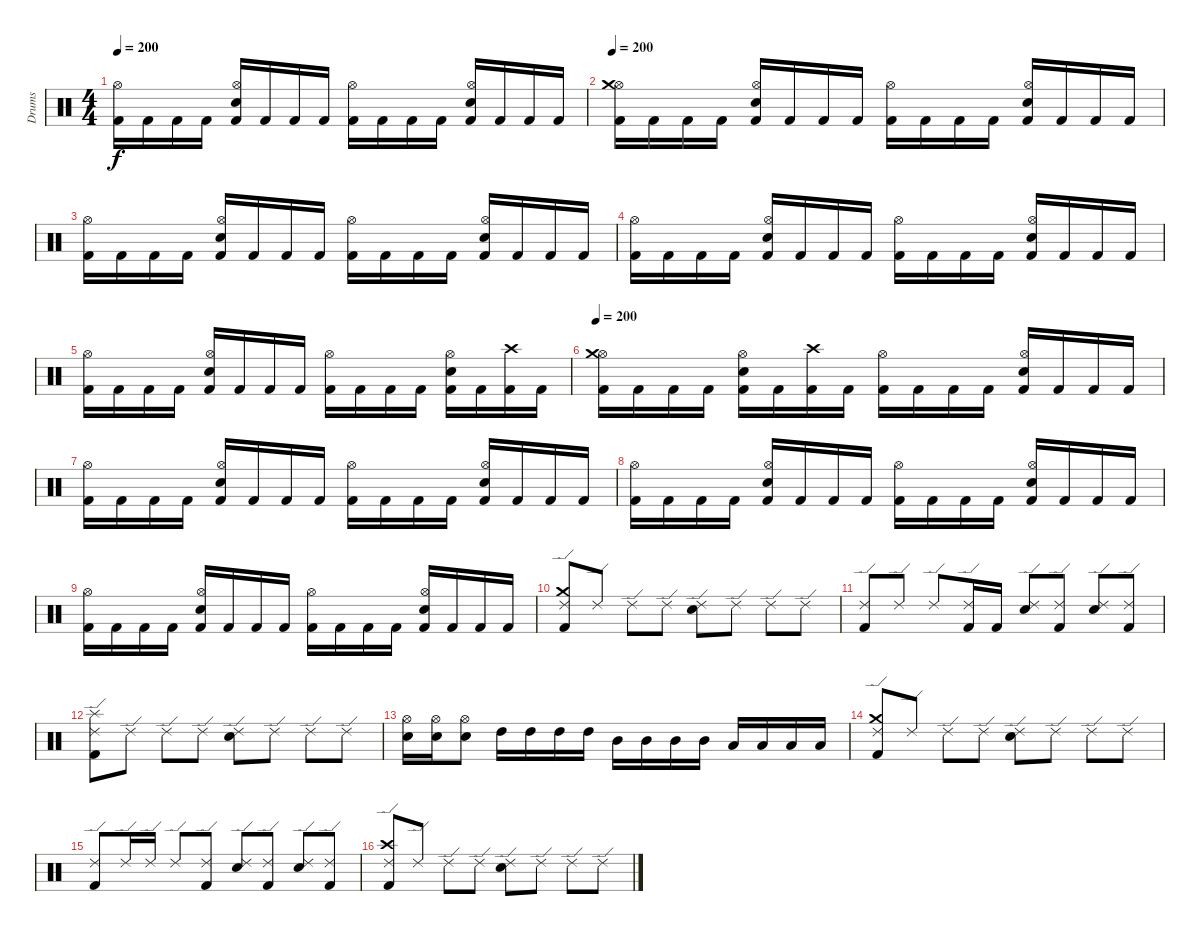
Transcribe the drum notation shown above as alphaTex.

\track ("Drums" "Drums") {instrument percussion}
\staff {score}
\articulation defaults
\ts (4 4)
\tempo 200
\clef neutral
\ks c
("Kick (hit) 2" "Hi-Hat (open)").16{dy f} "Kick (hit) 2".16 "Kick (hit) 2".16 "Kick (hit) 2".16 ("Kick (hit) 2" "Snare (hit) 2" "Hi-Hat (open)").16 "Kick (hit) 2".16 "Kick (hit) 2".16 "Kick (hit) 2".16 ("Kick (hit) 2" "Hi-Hat (open)").16 "Kick (hit) 2".16 "Kick (hit) 2".16 "Kick (hit) 2".16 ("Kick (hit) 2" "Snare (hit) 2" "Hi-Hat (open)").16 "Kick (hit) 2".16 "Kick (hit) 2".16 "Kick (hit) 2".16 |
\tempo 200
("Kick (hit) 2" "Hi-Hat (open)" "Crash medium (hit)").16 "Kick (hit) 2".16 "Kick (hit) 2".16 "Kick (hit) 2".16 ("Kick (hit) 2" "Snare (hit) 2" "Hi-Hat (open)").16 "Kick (hit) 2".16 "Kick (hit) 2".16 "Kick (hit) 2".16 ("Kick (hit) 2" "Hi-Hat (open)").16 "Kick (hit) 2".16 "Kick (hit) 2".16 "Kick (hit) 2".16 ("Kick (hit) 2" "Snare (hit) 2" "Hi-Hat (open)").16 "Kick (hit) 2".16 "Kick (hit) 2".16 "Kick (hit) 2".16 |
("Kick (hit) 2" "Hi-Hat (open)").16 "Kick (hit) 2".16 "Kick (hit) 2".16 "Kick (hit) 2".16 ("Kick (hit) 2" "Snare (hit) 2" "Hi-Hat (open)").16 "Kick (hit) 2".16 "Kick (hit) 2".16 "Kick (hit) 2".16 ("Kick (hit) 2" "Hi-Hat (open)").16 "Kick (hit) 2".16 "Kick (hit) 2".16 "Kick (hit) 2".16 ("Kick (hit) 2" "Snare (hit) 2" "Hi-Hat (open)").16 "Kick (hit) 2".16 "Kick (hit) 2".16 "Kick (hit) 2".16 |
("Kick (hit) 2" "Hi-Hat (open)").16 "Kick (hit) 2".16 "Kick (hit) 2".16 "Kick (hit) 2".16 ("Kick (hit) 2" "Snare (hit) 2" "Hi-Hat (open)").16 "Kick (hit) 2".16 "Kick (hit) 2".16 "Kick (hit) 2".16 ("Kick (hit) 2" "Hi-Hat (open)").16 "Kick (hit) 2".16 "Kick (hit) 2".16 "Kick (hit) 2".16 ("Kick (hit) 2" "Snare (hit) 2" "Hi-Hat (open)").16 "Kick (hit) 2".16 "Kick (hit) 2".16 "Kick (hit) 2".16 |
("Kick (hit) 2" "Hi-Hat (open)").16 "Kick (hit) 2".16 "Kick (hit) 2".16 "Kick (hit) 2".16 ("Kick (hit) 2" "Snare (hit) 2" "Hi-Hat (open)").16 "Kick (hit) 2".16 "Kick (hit) 2".16 "Kick (hit) 2".16 ("Kick (hit) 2" "Hi-Hat (open)").16 "Kick (hit) 2".16 "Kick (hit) 2".16 "Kick (hit) 2".16 ("Kick (hit) 2" "Snare (hit) 2" "Hi-Hat (open)").16 "Kick (hit) 2".16 ("Kick (hit) 2" "Crash high (hit)").16 "Kick (hit) 2".16 |
\tempo 200
("Kick (hit) 2" "Hi-Hat (open)" "Crash medium (hit)").16 "Kick (hit) 2".16 "Kick (hit) 2".16 "Kick (hit) 2".16 ("Kick (hit) 2" "Snare (hit) 2" "Hi-Hat (open)").16 "Kick (hit) 2".16 ("Kick (hit) 2" "Crash high (hit)").16 "Kick (hit) 2".16 ("Kick (hit) 2" "Hi-Hat (open)").16 "Kick (hit) 2".16 "Kick (hit) 2".16 "Kick (hit) 2".16 ("Kick (hit) 2" "Snare (hit) 2" "Hi-Hat (open)").16 "Kick (hit) 2".16 "Kick (hit) 2".16 "Kick (hit) 2".16 |
("Kick (hit) 2" "Hi-Hat (open)").16 "Kick (hit) 2".16 "Kick (hit) 2".16 "Kick (hit) 2".16 ("Kick (hit) 2" "Snare (hit) 2" "Hi-Hat (open)").16 "Kick (hit) 2".16 "Kick (hit) 2".16 "Kick (hit) 2".16 ("Kick (hit) 2" "Hi-Hat (open)").16 "Kick (hit) 2".16 "Kick (hit) 2".16 "Kick (hit) 2".16 ("Kick (hit) 2" "Snare (hit) 2" "Hi-Hat (open)").16 "Kick (hit) 2".16 "Kick (hit) 2".16 "Kick (hit) 2".16 |
("Kick (hit) 2" "Hi-Hat (open)").16 "Kick (hit) 2".16 "Kick (hit) 2".16 "Kick (hit) 2".16 ("Kick (hit) 2" "Snare (hit) 2" "Hi-Hat (open)").16 "Kick (hit) 2".16 "Kick (hit) 2".16 "Kick (hit) 2".16 ("Kick (hit) 2" "Hi-Hat (open)").16 "Kick (hit) 2".16 "Kick (hit) 2".16 "Kick (hit) 2".16 ("Kick (hit) 2" "Snare (hit) 2" "Hi-Hat (open)").16 "Kick (hit) 2".16 "Kick (hit) 2".16 "Kick (hit) 2".16 |
("Kick (hit) 2" "Hi-Hat (open)").16 "Kick (hit) 2".16 "Kick (hit) 2".16 "Kick (hit) 2".16 ("Kick (hit) 2" "Snare (hit) 2" "Hi-Hat (open)").16 "Kick (hit) 2".16 "Kick (hit) 2".16 "Kick (hit) 2".16 ("Kick (hit) 2" "Hi-Hat (open)").16 "Kick (hit) 2".16 "Kick (hit) 2".16 "Kick (hit) 2".16 ("Kick (hit) 2" "Snare (hit) 2" "Hi-Hat (open)").16 "Kick (hit) 2".16 "Kick (hit) 2".16 "Kick (hit) 2".16 |
("Kick (hit) 2" "Ride (edge) 2" "Crash medium (hit)").8 "Ride (edge) 2".8 "Ride (edge) 2".8 "Ride (edge) 2".8 ("Snare (hit) 2" "Ride (edge) 2").8 "Ride (edge) 2".8 "Ride (edge) 2".8 "Ride (edge) 2".8 |
("Kick (hit) 2" "Ride (edge) 2").8 "Ride (edge) 2".8 "Ride (edge) 2".8 ("Kick (hit) 2" "Ride (edge) 2").16 "Kick (hit) 2".16 ("Snare (hit) 2" "Ride (edge) 2").8 ("Kick (hit) 2" "Ride (edge) 2").8 ("Snare (hit) 2" "Ride (edge) 2").8 ("Kick (hit) 2" "Ride (edge) 2").8 |
("Kick (hit) 2" "Ride (edge) 2" "Splash (hit)").8 "Ride (edge) 2".8 "Ride (edge) 2".8 "Ride (edge) 2".8 ("Snare (hit) 2" "Ride (edge) 2").8 "Ride (edge) 2".8 "Ride (edge) 2".8 "Ride (edge) 2".8 |
("Snare (hit) 2" "Hi-Hat (open)").16 ("Snare (hit) 2" "Hi-Hat (open)").16 ("Snare (hit) 2" "Hi-Hat (open)").8 "High Tom (hit)".16 "High Tom (hit)".16 "High Tom (hit)".16 "High Tom (hit)".16 "Mid Tom (hit)".16 "Mid Tom (hit)".16 "Mid Tom (hit)".16 "Mid Tom (hit)".16 "Low Tom (hit)".16 "Low Tom (hit)".16 "Low Tom (hit)".16 "Low Tom (hit)".16 |
("Kick (hit) 2" "Ride (edge) 2" "Crash medium (hit)").8 "Ride (edge) 2".8 "Ride (edge) 2".8 "Ride (edge) 2".8 ("Snare (hit) 2" "Ride (edge) 2").8 "Ride (edge) 2".8 "Ride (edge) 2".8 "Ride (edge) 2".8 |
("Kick (hit) 2" "Ride (edge) 2").8 "Ride (edge) 2".16 "Ride (edge) 2".16 "Ride (edge) 2".8 ("Kick (hit) 2" "Ride (edge) 2").8 ("Snare (hit) 2" "Ride (edge) 2").8 ("Kick (hit) 2" "Ride (edge) 2").8 ("Snare (hit) 2" "Ride (edge) 2").8 ("Kick (hit) 2" "Ride (edge) 2").8 |
("Kick (hit) 2" "Ride (edge) 2" "Crash high (hit)").8 "Ride (edge) 2".8 "Ride (edge) 2".8 "Ride (edge) 2".8 ("Snare (hit) 2" "Ride (edge) 2").8 "Ride (edge) 2".8 "Ride (edge) 2".8 "Ride (edge) 2".8
